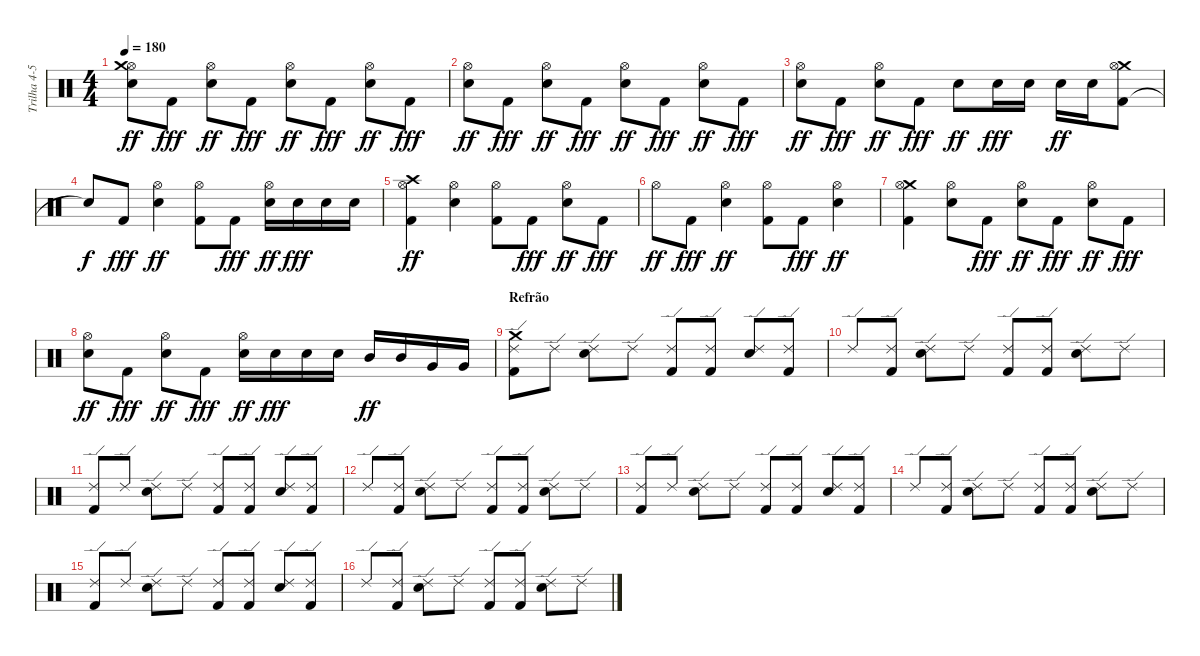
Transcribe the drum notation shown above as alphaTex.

\track ("Trilha 4-5" "Trilha 4-5") {instrument percussion}
\staff {score}
\articulation defaults
\ts (4 4)
\tempo 180
\clef neutral
\ks c
("Snare (hit) 2" "Hi-Hat (open)" "Crash medium (hit)").8{dy ff} "Kick (hit) 2".8{dy fff} ("Snare (hit) 2" "Hi-Hat (open)").8{dy ff} "Kick (hit) 2".8{dy fff} ("Snare (hit) 2" "Hi-Hat (open)").8{dy ff} "Kick (hit) 2".8{dy fff} ("Snare (hit) 2" "Hi-Hat (open)").8{dy ff} "Kick (hit) 2".8{dy fff} |
("Snare (hit) 2" "Hi-Hat (open)").8{dy ff} "Kick (hit) 2".8{dy fff} ("Snare (hit) 2" "Hi-Hat (open)").8{dy ff} "Kick (hit) 2".8{dy fff} ("Snare (hit) 2" "Hi-Hat (open)").8{dy ff} "Kick (hit) 2".8{dy fff} ("Snare (hit) 2" "Hi-Hat (open)").8{dy ff} "Kick (hit) 2".8{dy fff} |
("Snare (hit) 2" "Hi-Hat (open)").8{dy ff} "Kick (hit) 2".8{dy fff} ("Snare (hit) 2" "Hi-Hat (open)").8{dy ff} "Kick (hit) 2".8{dy fff} "Snare (hit) 2".8{dy ff} "Snare (hit) 2".16{dy fff} "Snare (hit) 2".16 "Snare (hit) 2".16{dy ff} "Snare (hit) 2".16 ("Kick (hit) 2" "Crash medium (hit)" "Hi-Hat (open)").8 |
"Snare (hit)"{t}.8{dy f} "Kick (hit) 2".8{dy fff} ("Snare (hit) 2" "Hi-Hat (open)").4{dy ff} ("Kick (hit) 2" "Hi-Hat (open)").8 "Kick (hit) 2".8{dy fff} ("Snare (hit) 2" "Hi-Hat (open)").16{dy ff} "Snare (hit) 2".16{dy fff} "Snare (hit) 2".16 "Snare (hit) 2".16 |
("Kick (hit) 2" "Crash high (hit)" "Hi-Hat (open)").4{dy ff} ("Snare (hit) 2" "Hi-Hat (open)").4 ("Kick (hit) 2" "Hi-Hat (open)").8 "Kick (hit) 2".8{dy fff} ("Snare (hit) 2" "Hi-Hat (open)").8{dy ff} "Kick (hit) 2".8{dy fff} |
"Hi-Hat (open)".8{dy ff} "Kick (hit) 2".8{dy fff} ("Snare (hit) 2" "Hi-Hat (open)").4{dy ff} ("Kick (hit) 2" "Hi-Hat (open)").8 "Kick (hit) 2".8{dy fff} ("Snare (hit) 2" "Hi-Hat (open)").4{dy ff} |
("Kick (hit) 2" "Crash medium (hit)" "Hi-Hat (open)").4 ("Snare (hit) 2" "Hi-Hat (open)").8 "Kick (hit) 2".8{dy fff} ("Snare (hit) 2" "Hi-Hat (open)").8{dy ff} "Kick (hit) 2".8{dy fff} ("Snare (hit) 2" "Hi-Hat (open)").8{dy ff} "Kick (hit) 2".8{dy fff} |
("Snare (hit) 2" "Hi-Hat (open)").8{dy ff} "Kick (hit) 2".8{dy fff} ("Snare (hit) 2" "Hi-Hat (open)").8{dy ff} "Kick (hit) 2".8{dy fff} ("Snare (hit) 2" "Hi-Hat (open)").16{dy ff} "Snare (hit) 2".16{dy fff} "Snare (hit) 2".16 "Snare (hit) 2".16 "Mid Tom (hit)".16{dy ff} "Mid Tom (hit)".16 "Very Low Tom (hit)".16 "Very Low Tom (hit)".16 |
\section ("" "Refrão")
("Kick (hit) 2" "Crash medium (hit)" "Ride (edge) 2").8 "Ride (edge) 2".8 ("Snare (hit) 2" "Ride (edge) 2").8 "Ride (edge) 2".8 ("Kick (hit) 2" "Ride (edge) 2").8 ("Kick (hit) 2" "Ride (edge) 2").8 ("Snare (hit) 2" "Ride (edge) 2").8 ("Kick (hit) 2" "Ride (edge) 2").8 |
"Ride (edge) 2".8 ("Kick (hit) 2" "Ride (edge) 2").8 ("Snare (hit) 2" "Ride (edge) 2").8 "Ride (edge) 2".8 ("Kick (hit) 2" "Ride (edge) 2").8 ("Kick (hit) 2" "Ride (edge) 2").8 ("Snare (hit) 2" "Ride (edge) 2").8 "Ride (edge) 2".8 |
("Kick (hit) 2" "Ride (edge) 2").8 "Ride (edge) 2".8 ("Snare (hit) 2" "Ride (edge) 2").8 "Ride (edge) 2".8 ("Kick (hit) 2" "Ride (edge) 2").8 ("Kick (hit) 2" "Ride (edge) 2").8 ("Snare (hit) 2" "Ride (edge) 2").8 ("Kick (hit) 2" "Ride (edge) 2").8 |
"Ride (edge) 2".8 ("Kick (hit) 2" "Ride (edge) 2").8 ("Snare (hit) 2" "Ride (edge) 2").8 "Ride (edge) 2".8 ("Kick (hit) 2" "Ride (edge) 2").8 ("Kick (hit) 2" "Ride (edge) 2").8 ("Snare (hit) 2" "Ride (edge) 2").8 "Ride (edge) 2".8 |
("Kick (hit) 2" "Ride (edge) 2").8 "Ride (edge) 2".8 ("Snare (hit) 2" "Ride (edge) 2").8 "Ride (edge) 2".8 ("Kick (hit) 2" "Ride (edge) 2").8 ("Kick (hit) 2" "Ride (edge) 2").8 ("Snare (hit) 2" "Ride (edge) 2").8 ("Kick (hit) 2" "Ride (edge) 2").8 |
"Ride (edge) 2".8 ("Kick (hit) 2" "Ride (edge) 2").8 ("Snare (hit) 2" "Ride (edge) 2").8 "Ride (edge) 2".8 ("Kick (hit) 2" "Ride (edge) 2").8 ("Kick (hit) 2" "Ride (edge) 2").8 ("Snare (hit) 2" "Ride (edge) 2").8 "Ride (edge) 2".8 |
("Kick (hit) 2" "Ride (edge) 2").8 "Ride (edge) 2".8 ("Snare (hit) 2" "Ride (edge) 2").8 "Ride (edge) 2".8 ("Kick (hit) 2" "Ride (edge) 2").8 ("Kick (hit) 2" "Ride (edge) 2").8 ("Snare (hit) 2" "Ride (edge) 2").8 ("Kick (hit) 2" "Ride (edge) 2").8 |
"Ride (edge) 2".8 ("Kick (hit) 2" "Ride (edge) 2").8 ("Snare (hit) 2" "Ride (edge) 2").8 "Ride (edge) 2".8 ("Kick (hit) 2" "Ride (edge) 2").8 ("Kick (hit) 2" "Ride (edge) 2").8 ("Snare (hit) 2" "Ride (edge) 2").8 "Ride (edge) 2".8
